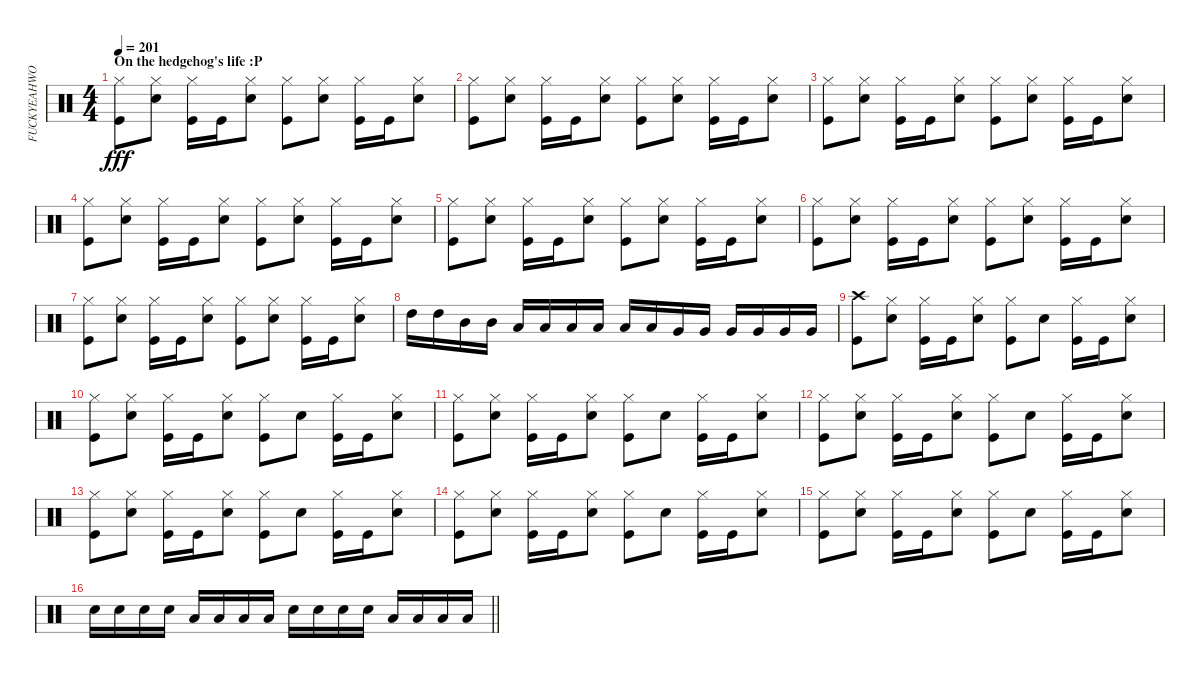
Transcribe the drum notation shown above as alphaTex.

\track ("FUCKYEAHWOOTDAVEMACKINTOSH(Percussion)" "FUCKYEAHWO") {instrument percussion}
\staff {score}
\articulation defaults
\ts (4 4)
\section ("" "On the hedgehog's life :P")
\tempo 201
\clef neutral
\ks c
("Kick (hit)" "Hi-Hat (closed)").8{dy fff} ("Snare (hit) 2" "Hi-Hat (closed)").8 ("Kick (hit)" "Hi-Hat (closed)").16 "Kick (hit)".16 ("Snare (hit) 2" "Hi-Hat (closed)").8 ("Kick (hit)" "Hi-Hat (closed)").8 ("Snare (hit) 2" "Hi-Hat (closed)").8 ("Kick (hit)" "Hi-Hat (closed)").16 "Kick (hit)".16 ("Snare (hit) 2" "Hi-Hat (closed)").8 |
("Kick (hit)" "Hi-Hat (closed)").8 ("Snare (hit) 2" "Hi-Hat (closed)").8 ("Kick (hit)" "Hi-Hat (closed)").16 "Kick (hit)".16 ("Snare (hit) 2" "Hi-Hat (closed)").8 ("Kick (hit)" "Hi-Hat (closed)").8 ("Snare (hit) 2" "Hi-Hat (closed)").8 ("Kick (hit)" "Hi-Hat (closed)").16 "Kick (hit)".16 ("Snare (hit) 2" "Hi-Hat (closed)").8 |
("Kick (hit)" "Hi-Hat (closed)").8 ("Snare (hit) 2" "Hi-Hat (closed)").8 ("Kick (hit)" "Hi-Hat (closed)").16 "Kick (hit)".16 ("Snare (hit) 2" "Hi-Hat (closed)").8 ("Kick (hit)" "Hi-Hat (closed)").8 ("Snare (hit) 2" "Hi-Hat (closed)").8 ("Kick (hit)" "Hi-Hat (closed)").16 "Kick (hit)".16 ("Snare (hit) 2" "Hi-Hat (closed)").8 |
("Kick (hit)" "Hi-Hat (closed)").8 ("Snare (hit) 2" "Hi-Hat (closed)").8 ("Kick (hit)" "Hi-Hat (closed)").16 "Kick (hit)".16 ("Snare (hit) 2" "Hi-Hat (closed)").8 ("Kick (hit)" "Hi-Hat (closed)").8 ("Snare (hit) 2" "Hi-Hat (closed)").8 ("Kick (hit)" "Hi-Hat (closed)").16 "Kick (hit)".16 ("Snare (hit) 2" "Hi-Hat (closed)").8 |
("Kick (hit)" "Hi-Hat (closed)").8 ("Snare (hit) 2" "Hi-Hat (closed)").8 ("Kick (hit)" "Hi-Hat (closed)").16 "Kick (hit)".16 ("Snare (hit) 2" "Hi-Hat (closed)").8 ("Kick (hit)" "Hi-Hat (closed)").8 ("Snare (hit) 2" "Hi-Hat (closed)").8 ("Kick (hit)" "Hi-Hat (closed)").16 "Kick (hit)".16 ("Snare (hit) 2" "Hi-Hat (closed)").8 |
("Kick (hit)" "Hi-Hat (closed)").8 ("Snare (hit) 2" "Hi-Hat (closed)").8 ("Kick (hit)" "Hi-Hat (closed)").16 "Kick (hit)".16 ("Snare (hit) 2" "Hi-Hat (closed)").8 ("Kick (hit)" "Hi-Hat (closed)").8 ("Snare (hit) 2" "Hi-Hat (closed)").8 ("Kick (hit)" "Hi-Hat (closed)").16 "Kick (hit)".16 ("Snare (hit) 2" "Hi-Hat (closed)").8 |
("Kick (hit)" "Hi-Hat (closed)").8 ("Snare (hit) 2" "Hi-Hat (closed)").8 ("Kick (hit)" "Hi-Hat (closed)").16 "Kick (hit)".16 ("Snare (hit) 2" "Hi-Hat (closed)").8 ("Kick (hit)" "Hi-Hat (closed)").8 ("Snare (hit) 2" "Hi-Hat (closed)").8 ("Kick (hit)" "Hi-Hat (closed)").16 "Kick (hit)".16 ("Snare (hit) 2" "Hi-Hat (closed)").8 |
"High Tom (hit)".16 "High Tom (hit)".16 "Mid Tom (hit)".16 "Mid Tom (hit)".16 "Low Tom (hit)".16 "Low Tom (hit)".16 "Low Tom (hit)".16 "Low Tom (hit)".16 "Low Tom (hit)".16 "Low Tom (hit)".16 "Very Low Tom (hit)".16 "Very Low Tom (hit)".16 "Very Low Tom (hit)".16 "Very Low Tom (hit)".16 "Very Low Tom (hit)".16 "Very Low Tom (hit)".16 |
("Kick (hit)" "Crash high (hit)").8 ("Snare (hit) 2" "Hi-Hat (closed)").8 ("Kick (hit)" "Hi-Hat (closed)").16 "Kick (hit)".16 ("Snare (hit) 2" "Hi-Hat (closed)").8 ("Kick (hit)" "Hi-Hat (closed)").8 "Snare (hit) 2".8 ("Kick (hit)" "Hi-Hat (closed)").16 "Kick (hit)".16 ("Snare (hit) 2" "Hi-Hat (closed)").8 |
("Kick (hit)" "Hi-Hat (closed)").8 ("Snare (hit) 2" "Hi-Hat (closed)").8 ("Kick (hit)" "Hi-Hat (closed)").16 "Kick (hit)".16 ("Snare (hit) 2" "Hi-Hat (closed)").8 ("Kick (hit)" "Hi-Hat (closed)").8 "Snare (hit) 2".8 ("Kick (hit)" "Hi-Hat (closed)").16 "Kick (hit)".16 ("Snare (hit) 2" "Hi-Hat (closed)").8 |
("Kick (hit)" "Hi-Hat (closed)").8 ("Snare (hit) 2" "Hi-Hat (closed)").8 ("Kick (hit)" "Hi-Hat (closed)").16 "Kick (hit)".16 ("Snare (hit) 2" "Hi-Hat (closed)").8 ("Kick (hit)" "Hi-Hat (closed)").8 "Snare (hit) 2".8 ("Kick (hit)" "Hi-Hat (closed)").16 "Kick (hit)".16 ("Snare (hit) 2" "Hi-Hat (closed)").8 |
("Kick (hit)" "Hi-Hat (closed)").8 ("Snare (hit) 2" "Hi-Hat (closed)").8 ("Kick (hit)" "Hi-Hat (closed)").16 "Kick (hit)".16 ("Snare (hit) 2" "Hi-Hat (closed)").8 ("Kick (hit)" "Hi-Hat (closed)").8 "Snare (hit) 2".8 ("Kick (hit)" "Hi-Hat (closed)").16 "Kick (hit)".16 ("Snare (hit) 2" "Hi-Hat (closed)").8 |
("Kick (hit)" "Hi-Hat (closed)").8 ("Snare (hit) 2" "Hi-Hat (closed)").8 ("Kick (hit)" "Hi-Hat (closed)").16 "Kick (hit)".16 ("Snare (hit) 2" "Hi-Hat (closed)").8 ("Kick (hit)" "Hi-Hat (closed)").8 "Snare (hit) 2".8 ("Kick (hit)" "Hi-Hat (closed)").16 "Kick (hit)".16 ("Snare (hit) 2" "Hi-Hat (closed)").8 |
("Kick (hit)" "Hi-Hat (closed)").8 ("Snare (hit) 2" "Hi-Hat (closed)").8 ("Kick (hit)" "Hi-Hat (closed)").16 "Kick (hit)".16 ("Snare (hit) 2" "Hi-Hat (closed)").8 ("Kick (hit)" "Hi-Hat (closed)").8 "Snare (hit) 2".8 ("Kick (hit)" "Hi-Hat (closed)").16 "Kick (hit)".16 ("Snare (hit) 2" "Hi-Hat (closed)").8 |
("Kick (hit)" "Hi-Hat (closed)").8 ("Snare (hit) 2" "Hi-Hat (closed)").8 ("Kick (hit)" "Hi-Hat (closed)").16 "Kick (hit)".16 ("Snare (hit) 2" "Hi-Hat (closed)").8 ("Kick (hit)" "Hi-Hat (closed)").8 "Snare (hit) 2".8 ("Kick (hit)" "Hi-Hat (closed)").16 "Kick (hit)".16 ("Snare (hit) 2" "Hi-Hat (closed)").8 |
\barLineRight lightlight "Snare (hit) 2".16 "Snare (hit) 2".16 "Snare (hit) 2".16 "Snare (hit) 2".16 "Low Tom (hit)".16 "Low Tom (hit)".16 "Low Tom (hit)".16 "Low Tom (hit)".16 "Snare (hit) 2".16 "Snare (hit) 2".16 "Snare (hit) 2".16 "Snare (hit) 2".16 "Low Tom (hit)".16 "Low Tom (hit)".16 "Low Tom (hit)".16 "Low Tom (hit)".16
